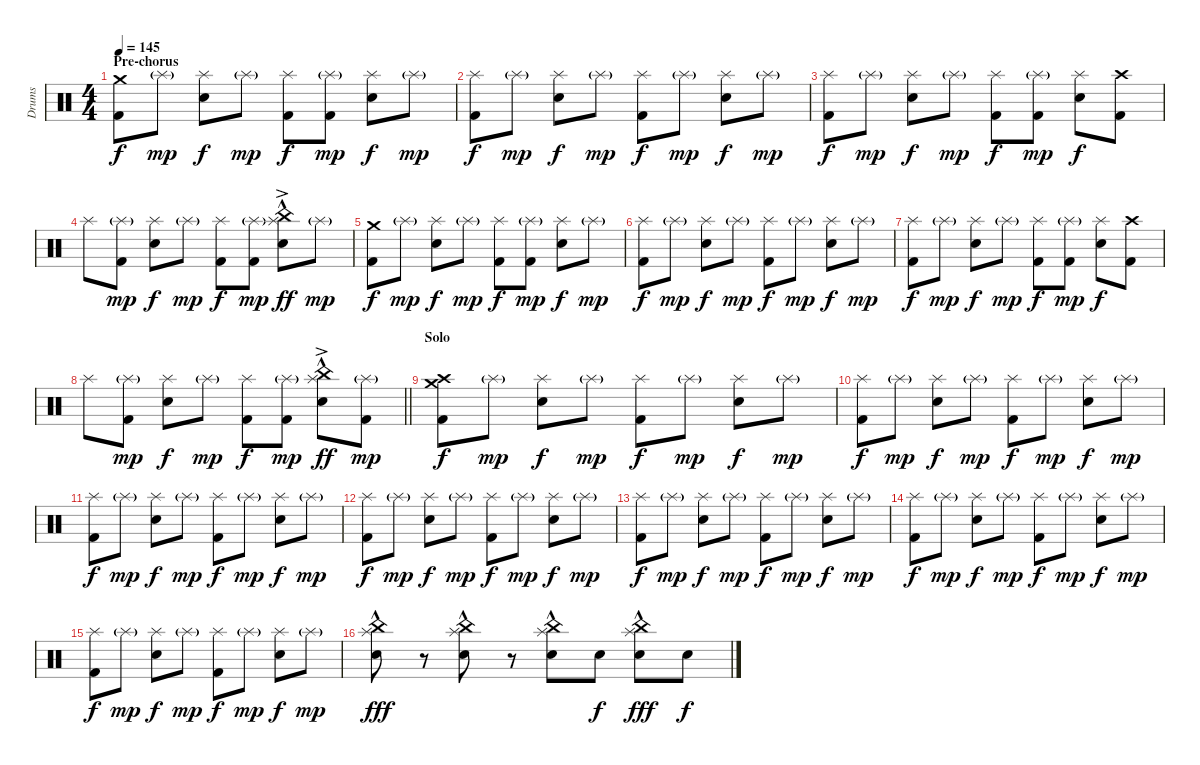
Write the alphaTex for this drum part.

\track ("Drums" "Drums") {instrument percussion}
\staff {score}
\articulation defaults
\ts (4 4)
\section ("" "Pre-chorus")
\tempo 145
\clef neutral
\ks c
("Crash medium (hit)" "Kick (hit) 2").8{dy f} "Splash (hit)"{g}.8{dy mp} ("Splash (hit)" "Snare (hit) 2").8{dy f} "Splash (hit)"{g}.8{dy mp} ("Splash (hit)" "Kick (hit) 2").8{dy f} ("Splash (hit)"{g} "Kick (hit) 2").8{dy mp} ("Splash (hit)" "Snare (hit) 2").8{dy f} "Splash (hit)"{g}.8{dy mp} |
("Splash (hit)" "Kick (hit) 2").8{dy f} "Splash (hit)"{g}.8{dy mp} ("Splash (hit)" "Snare (hit) 2").8{dy f} "Splash (hit)"{g}.8{dy mp} ("Splash (hit)" "Kick (hit) 2").8{dy f} "Splash (hit)"{g}.8{dy mp} ("Splash (hit)" "Snare (hit) 2").8{dy f} "Splash (hit)"{g}.8{dy mp} |
("Splash (hit)" "Kick (hit) 2").8{dy f} "Splash (hit)"{g}.8{dy mp} ("Splash (hit)" "Snare (hit) 2").8{dy f} "Splash (hit)"{g}.8{dy mp} ("Splash (hit)" "Kick (hit) 2").8{dy f} ("Splash (hit)"{g} "Kick (hit) 2").8{dy mp} ("Splash (hit)" "Snare (hit) 2").8{dy f} ("Crash high (hit)" "Kick (hit) 2").8 |
"Splash (hit)".8 ("Splash (hit)"{g} "Kick (hit) 2").8{dy mp} ("Splash (hit)" "Snare (hit) 2").8{dy f} "Splash (hit)"{g}.8{dy mp} ("Splash (hit)" "Kick (hit) 2").8{dy f} ("Splash (hit)"{g} "Kick (hit) 2").8{dy mp} ("China (hit)"{hac} "Splash (hit)"{ac} "Snare (hit) 2").8{dy ff} "Splash (hit)"{g}.8{dy mp} |
("Crash medium (hit)" "Kick (hit) 2").8{dy f} "Splash (hit)"{g}.8{dy mp} ("Splash (hit)" "Snare (hit) 2").8{dy f} "Splash (hit)"{g}.8{dy mp} ("Splash (hit)" "Kick (hit) 2").8{dy f} ("Splash (hit)"{g} "Kick (hit) 2").8{dy mp} ("Splash (hit)" "Snare (hit) 2").8{dy f} "Splash (hit)"{g}.8{dy mp} |
("Splash (hit)" "Kick (hit) 2").8{dy f} "Splash (hit)"{g}.8{dy mp} ("Splash (hit)" "Snare (hit) 2").8{dy f} "Splash (hit)"{g}.8{dy mp} ("Splash (hit)" "Kick (hit) 2").8{dy f} "Splash (hit)"{g}.8{dy mp} ("Splash (hit)" "Snare (hit) 2").8{dy f} "Splash (hit)"{g}.8{dy mp} |
("Splash (hit)" "Kick (hit) 2").8{dy f} "Splash (hit)"{g}.8{dy mp} ("Splash (hit)" "Snare (hit) 2").8{dy f} "Splash (hit)"{g}.8{dy mp} ("Splash (hit)" "Kick (hit) 2").8{dy f} ("Splash (hit)"{g} "Kick (hit) 2").8{dy mp} ("Splash (hit)" "Snare (hit) 2").8{dy f} ("Crash high (hit)" "Kick (hit) 2").8 |
\barLineRight lightlight "Splash (hit)".8
("Splash (hit)"{g} "Kick (hit) 2").8{dy mp} ("Splash (hit)" "Snare (hit) 2").8{dy f} "Splash (hit)"{g}.8{dy mp} ("Splash (hit)" "Kick (hit) 2").8{dy f} ("Splash (hit)"{g} "Kick (hit) 2").8{dy mp} ("China (hit)"{hac} "Splash (hit)"{ac} "Snare (hit) 2").8{dy ff} ("Splash (hit)"{g} "Kick (hit) 2").8{dy mp} |
\section ("" "Solo")
("Crash high (hit)" "Crash medium (hit)" "Kick (hit) 2").8{dy f} "Splash (hit)"{g}.8{dy mp} ("Splash (hit)" "Snare (hit) 2").8{dy f} "Splash (hit)"{g}.8{dy mp} ("Splash (hit)" "Kick (hit) 2").8{dy f} "Splash (hit)"{g}.8{dy mp} ("Splash (hit)" "Snare (hit) 2").8{dy f} "Splash (hit)"{g}.8{dy mp} |
("Splash (hit)" "Kick (hit) 2").8{dy f} "Splash (hit)"{g}.8{dy mp} ("Splash (hit)" "Snare (hit) 2").8{dy f} "Splash (hit)"{g}.8{dy mp} ("Splash (hit)" "Kick (hit) 2").8{dy f} "Splash (hit)"{g}.8{dy mp} ("Splash (hit)" "Snare (hit) 2").8{dy f} "Splash (hit)"{g}.8{dy mp} |
("Splash (hit)" "Kick (hit) 2").8{dy f} "Splash (hit)"{g}.8{dy mp} ("Splash (hit)" "Snare (hit) 2").8{dy f} "Splash (hit)"{g}.8{dy mp} ("Splash (hit)" "Kick (hit) 2").8{dy f} "Splash (hit)"{g}.8{dy mp} ("Splash (hit)" "Snare (hit) 2").8{dy f} "Splash (hit)"{g}.8{dy mp} |
("Splash (hit)" "Kick (hit) 2").8{dy f} "Splash (hit)"{g}.8{dy mp} ("Splash (hit)" "Snare (hit) 2").8{dy f} "Splash (hit)"{g}.8{dy mp} ("Splash (hit)" "Kick (hit) 2").8{dy f} "Splash (hit)"{g}.8{dy mp} ("Splash (hit)" "Snare (hit) 2").8{dy f} "Splash (hit)"{g}.8{dy mp} |
("Splash (hit)" "Kick (hit) 2").8{dy f} "Splash (hit)"{g}.8{dy mp} ("Splash (hit)" "Snare (hit) 2").8{dy f} "Splash (hit)"{g}.8{dy mp} ("Splash (hit)" "Kick (hit) 2").8{dy f} "Splash (hit)"{g}.8{dy mp} ("Splash (hit)" "Snare (hit) 2").8{dy f} "Splash (hit)"{g}.8{dy mp} |
("Splash (hit)" "Kick (hit) 2").8{dy f} "Splash (hit)"{g}.8{dy mp} ("Splash (hit)" "Snare (hit) 2").8{dy f} "Splash (hit)"{g}.8{dy mp} ("Splash (hit)" "Kick (hit) 2").8{dy f} "Splash (hit)"{g}.8{dy mp} ("Splash (hit)" "Snare (hit) 2").8{dy f} "Splash (hit)"{g}.8{dy mp} |
("Splash (hit)" "Kick (hit) 2").8{dy f} "Splash (hit)"{g}.8{dy mp} ("Splash (hit)" "Snare (hit) 2").8{dy f} "Splash (hit)"{g}.8{dy mp} ("Splash (hit)" "Kick (hit) 2").8{dy f} "Splash (hit)"{g}.8{dy mp} ("Splash (hit)" "Snare (hit) 2").8{dy f} "Splash (hit)"{g}.8{dy mp} |
("Splash (hit)"{hac} "China (hit)" "Snare (hit) 2").8{dy fff} r.8 ("Splash (hit)"{hac} "China (hit)" "Snare (hit) 2").8 r.8 ("Splash (hit)"{hac} "China (hit)" "Snare (hit) 2").8 "Snare (hit) 2".8{dy f} ("Splash (hit)"{hac} "China (hit)" "Snare (hit) 2").8{dy fff} "Snare (hit) 2".8{dy f}
